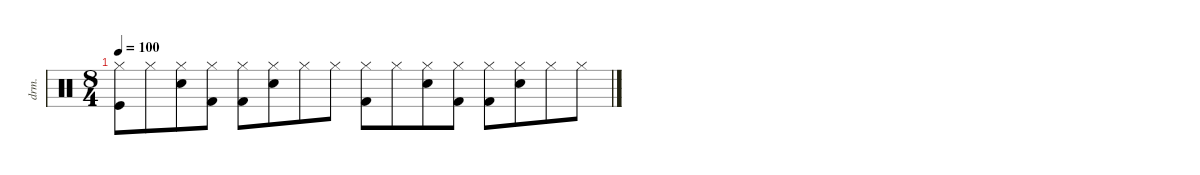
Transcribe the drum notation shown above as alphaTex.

\defaultSystemsLayout 4
\hideDynamics
\bracketExtendMode nobrackets
\otherSystemsTrackNameOrientation horizontal
\track ("Drumkit" "drm.") {instrument percussion}
\staff {score}
\articulation defaults
\ts (8 4)
\beaming (8 4 4 4 4)
\tempo 100
\clef neutral
\ks c
("Kick (hit)" "Hi-Hat (closed)").8{dy mf beam Down} "Hi-Hat (closed)".8{beam Down} ("Hi-Hat (closed)" "Snare (hit) 2").8{beam Down} ("Hi-Hat (closed)" "Kick (hit) 2").8{beam Down} ("Hi-Hat (closed)" "Kick (hit) 2").8{beam Down} ("Hi-Hat (closed)" "Snare (hit) 2").8{beam Down} "Hi-Hat (closed)".8{beam Down} "Hi-Hat (closed)".8{beam Down} ("Hi-Hat (closed)" "Kick (hit) 2").8{beam Down} "Hi-Hat (closed)".8{beam Down} ("Hi-Hat (closed)" "Snare (hit) 2").8{beam Down} ("Hi-Hat (closed)" "Kick (hit) 2").8{beam Down} ("Hi-Hat (closed)" "Kick (hit) 2").8{beam Down} ("Hi-Hat (closed)" "Snare (hit) 2").8{beam Down} "Hi-Hat (closed)".8{beam Down} "Hi-Hat (closed)".8{beam Down}
